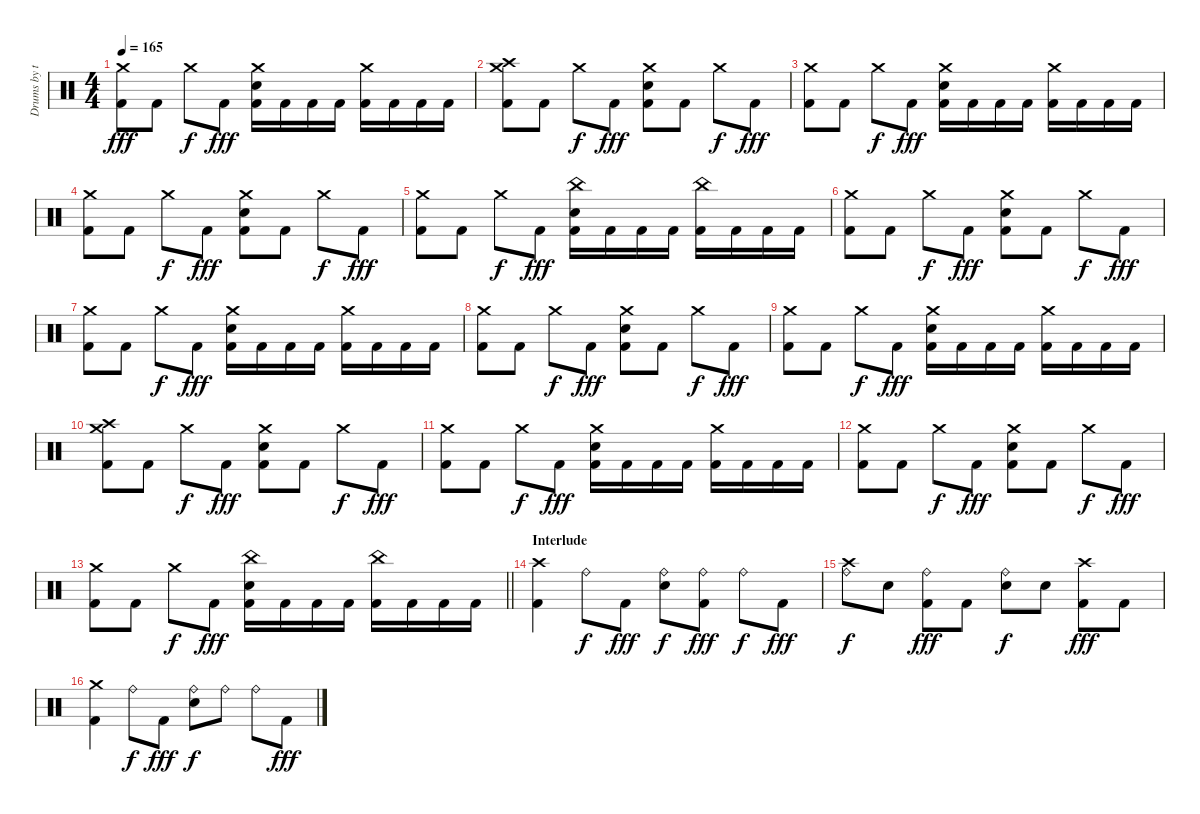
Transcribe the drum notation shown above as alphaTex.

\track ("Drums by terryn0" "Drums by t") {instrument percussion}
\staff {score}
\articulation defaults
\ts (4 4)
\tempo 165
\clef neutral
\ks c
("Crash medium (hit)" "Kick (hit) 2").8{dy fff} "Kick (hit) 2".8 "Crash medium (hit)".8{dy f} "Kick (hit) 2".8{dy fff} ("Crash medium (hit)" "Electric Snare (hit)" "Kick (hit) 2").16 "Kick (hit) 2".16 "Kick (hit) 2".16 "Kick (hit) 2".16 ("Crash medium (hit)" "Kick (hit) 2").16 "Kick (hit) 2".16 "Kick (hit) 2".16 "Kick (hit) 2".16 |
("Crash medium (hit)" "Crash high (hit)" "Kick (hit) 2").8 "Kick (hit) 2".8 "Crash medium (hit)".8{dy f} "Kick (hit) 2".8{dy fff} ("Crash medium (hit)" "Electric Snare (hit)" "Kick (hit) 2").8 "Kick (hit) 2".8 "Crash medium (hit)".8{dy f} "Kick (hit) 2".8{dy fff} |
("Crash medium (hit)" "Kick (hit) 2").8 "Kick (hit) 2".8 "Crash medium (hit)".8{dy f} "Kick (hit) 2".8{dy fff} ("Crash medium (hit)" "Electric Snare (hit)" "Kick (hit) 2").16 "Kick (hit) 2".16 "Kick (hit) 2".16 "Kick (hit) 2".16 ("Crash medium (hit)" "Kick (hit) 2").16 "Kick (hit) 2".16 "Kick (hit) 2".16 "Kick (hit) 2".16 |
("Crash medium (hit)" "Kick (hit) 2").8 "Kick (hit) 2".8 "Crash medium (hit)".8{dy f} "Kick (hit) 2".8{dy fff} ("Crash medium (hit)" "Electric Snare (hit)" "Kick (hit) 2").8 "Kick (hit) 2".8 "Crash medium (hit)".8{dy f} "Kick (hit) 2".8{dy fff} |
("Crash medium (hit)" "Kick (hit) 2").8 "Kick (hit) 2".8 "Crash medium (hit)".8{dy f} "Kick (hit) 2".8{dy fff} ("China (hit)" "Electric Snare (hit)" "Kick (hit) 2").16 "Kick (hit) 2".16 "Kick (hit) 2".16 "Kick (hit) 2".16 ("China (hit)" "Kick (hit) 2").16 "Kick (hit) 2".16 "Kick (hit) 2".16 "Kick (hit) 2".16 |
("Crash medium (hit)" "Kick (hit) 2").8 "Kick (hit) 2".8 "Crash medium (hit)".8{dy f} "Kick (hit) 2".8{dy fff} ("Crash medium (hit)" "Electric Snare (hit)" "Kick (hit) 2").8 "Kick (hit) 2".8 "Crash medium (hit)".8{dy f} "Kick (hit) 2".8{dy fff} |
("Crash medium (hit)" "Kick (hit) 2").8 "Kick (hit) 2".8 "Crash medium (hit)".8{dy f} "Kick (hit) 2".8{dy fff} ("Crash medium (hit)" "Electric Snare (hit)" "Kick (hit) 2").16 "Kick (hit) 2".16 "Kick (hit) 2".16 "Kick (hit) 2".16 ("Crash medium (hit)" "Kick (hit) 2").16 "Kick (hit) 2".16 "Kick (hit) 2".16 "Kick (hit) 2".16 |
("Crash medium (hit)" "Kick (hit) 2").8 "Kick (hit) 2".8 "Crash medium (hit)".8{dy f} "Kick (hit) 2".8{dy fff} ("Crash medium (hit)" "Electric Snare (hit)" "Kick (hit) 2").8 "Kick (hit) 2".8 "Crash medium (hit)".8{dy f} "Kick (hit) 2".8{dy fff} |
("Crash medium (hit)" "Kick (hit) 2").8 "Kick (hit) 2".8 "Crash medium (hit)".8{dy f} "Kick (hit) 2".8{dy fff} ("Crash medium (hit)" "Electric Snare (hit)" "Kick (hit) 2").16 "Kick (hit) 2".16 "Kick (hit) 2".16 "Kick (hit) 2".16 ("Crash medium (hit)" "Kick (hit) 2").16 "Kick (hit) 2".16 "Kick (hit) 2".16 "Kick (hit) 2".16 |
("Crash medium (hit)" "Crash high (hit)" "Kick (hit) 2").8 "Kick (hit) 2".8 "Crash medium (hit)".8{dy f} "Kick (hit) 2".8{dy fff} ("Crash medium (hit)" "Electric Snare (hit)" "Kick (hit) 2").8 "Kick (hit) 2".8 "Crash medium (hit)".8{dy f} "Kick (hit) 2".8{dy fff} |
("Crash medium (hit)" "Kick (hit) 2").8 "Kick (hit) 2".8 "Crash medium (hit)".8{dy f} "Kick (hit) 2".8{dy fff} ("Crash medium (hit)" "Electric Snare (hit)" "Kick (hit) 2").16 "Kick (hit) 2".16 "Kick (hit) 2".16 "Kick (hit) 2".16 ("Crash medium (hit)" "Kick (hit) 2").16 "Kick (hit) 2".16 "Kick (hit) 2".16 "Kick (hit) 2".16 |
("Crash medium (hit)" "Kick (hit) 2").8 "Kick (hit) 2".8 "Crash medium (hit)".8{dy f} "Kick (hit) 2".8{dy fff} ("Crash medium (hit)" "Electric Snare (hit)" "Kick (hit) 2").8 "Kick (hit) 2".8 "Crash medium (hit)".8{dy f} "Kick (hit) 2".8{dy fff} |
\barLineRight lightlight
("Crash medium (hit)" "Kick (hit) 2").8 "Kick (hit) 2".8 "Crash medium (hit)".8{dy f} "Kick (hit) 2".8{dy fff} ("China (hit)" "Electric Snare (hit)" "Kick (hit) 2").16 "Kick (hit) 2".16 "Kick (hit) 2".16 "Kick (hit) 2".16 ("China (hit)" "Kick (hit) 2").16 "Kick (hit) 2".16 "Kick (hit) 2".16 "Kick (hit) 2".16 |
\section ("" "Interlude")
("Crash high (hit)" "Kick (hit) 2").4 "Ride (bell)".8{dy f} "Kick (hit) 2".8{dy fff} ("Ride (bell)" "Electric Snare (hit)").8{dy f} ("Ride (bell)" "Kick (hit) 2").8{dy fff} "Ride (bell)".8{dy f} "Kick (hit) 2".8{dy fff} |
("Ride (bell)" "Crash high (hit)").8{dy f} "Electric Snare (hit)".8 ("Ride (bell)" "Kick (hit) 2").8{dy fff} "Kick (hit) 2".8 ("Ride (bell)" "Electric Snare (hit)").8{dy f} "Electric Snare (hit)".8 ("Crash high (hit)" "Kick (hit) 2").8{dy fff} "Kick (hit) 2".8 |
("Crash medium (hit)" "Kick (hit) 2").4 "Ride (bell)".8{dy f} "Kick (hit) 2".8{dy fff} ("Ride (bell)" "Electric Snare (hit)").8{dy f} "Ride (bell)".8 "Ride (bell)".8 "Kick (hit) 2".8{dy fff}
